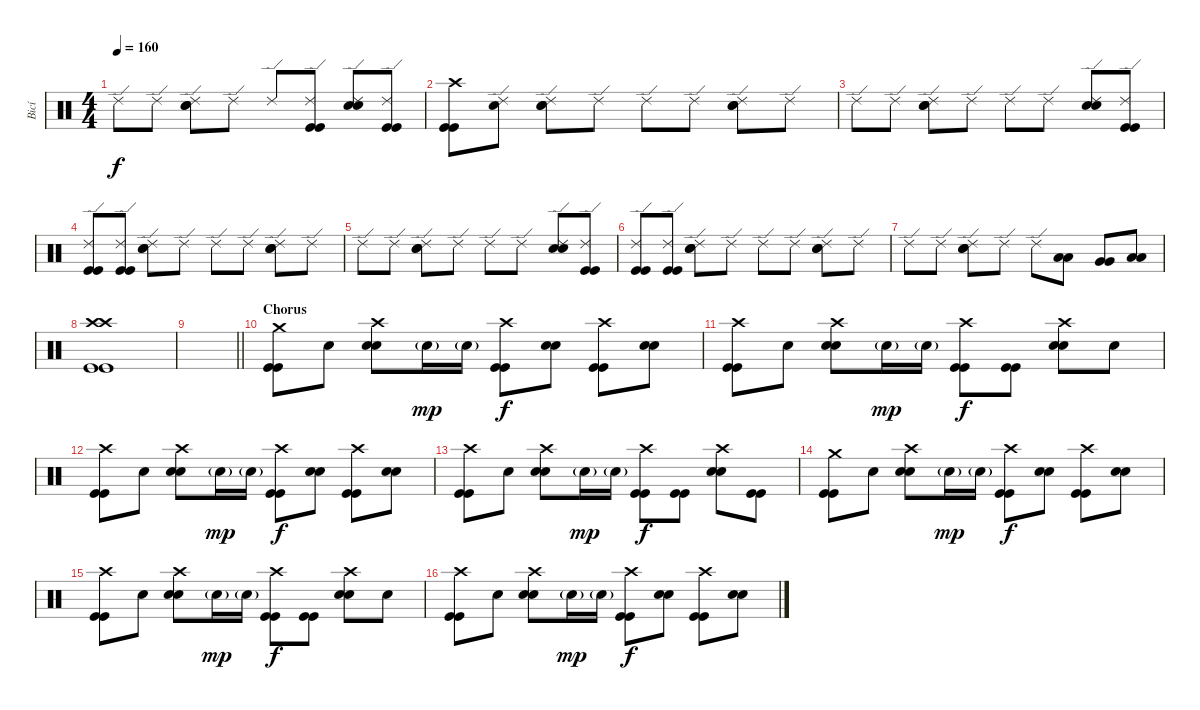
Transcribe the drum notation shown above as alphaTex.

\track ("Bicí" "Bicí") {instrument percussion}
\staff {score}
\articulation defaults
\ts (4 4)
\tempo 160
\clef neutral
\ks c "Ride (edge) 2".8{dy f} "Ride (edge) 2".8
("Ride (edge) 2" "Electric Snare (hit)" "Electric Snare (hit)").8 "Ride (edge) 2".8 "Ride (edge) 2".8 ("Ride (edge) 2" "Kick (hit)" "Kick (hit)").8 ("Ride (edge) 2" "Electric Snare (hit)" "Electric Snare (hit)").8 ("Ride (edge) 2" "Kick (hit)" "Kick (hit)").8 |
("Crash high (hit)" "Kick (hit)" "Kick (hit)").8 ("Ride (edge) 2" "Snare (hit)").8 ("Ride (edge) 2" "Electric Snare (hit)" "Electric Snare (hit)").8 "Ride (edge) 2".8 "Ride (edge) 2".8 "Ride (edge) 2".8 ("Ride (edge) 2" "Electric Snare (hit)" "Electric Snare (hit)").8 "Ride (edge) 2".8 |
"Ride (edge) 2".8 "Ride (edge) 2".8 ("Ride (edge) 2" "Electric Snare (hit)" "Electric Snare (hit)").8 "Ride (edge) 2".8 "Ride (edge) 2".8 "Ride (edge) 2".8 ("Ride (edge) 2" "Electric Snare (hit)" "Electric Snare (hit)").8 ("Ride (edge) 2" "Kick (hit)" "Kick (hit)").8 |
("Ride (edge) 2" "Kick (hit)" "Kick (hit)").8 ("Ride (edge) 2" "Kick (hit)" "Kick (hit)").8 ("Ride (edge) 2" "Electric Snare (hit)" "Electric Snare (hit)").8 "Ride (edge) 2".8 "Ride (edge) 2".8 "Ride (edge) 2".8 ("Ride (edge) 2" "Electric Snare (hit)" "Electric Snare (hit)").8 "Ride (edge) 2".8 |
"Ride (edge) 2".8 "Ride (edge) 2".8 ("Ride (edge) 2" "Electric Snare (hit)" "Electric Snare (hit)").8 "Ride (edge) 2".8 "Ride (edge) 2".8 "Ride (edge) 2".8 ("Ride (edge) 2" "Electric Snare (hit)" "Electric Snare (hit)").8 ("Ride (edge) 2" "Kick (hit)" "Kick (hit)").8 |
("Ride (edge) 2" "Kick (hit)" "Kick (hit)").8 ("Ride (edge) 2" "Kick (hit)" "Kick (hit)").8 ("Ride (edge) 2" "Electric Snare (hit)" "Electric Snare (hit)").8 "Ride (edge) 2".8 "Ride (edge) 2".8 "Ride (edge) 2".8 ("Ride (edge) 2" "Electric Snare (hit)" "Electric Snare (hit)").8 "Ride (edge) 2".8 |
"Ride (edge) 2".8 "Ride (edge) 2".8 ("Ride (edge) 2" "Electric Snare (hit)" "Electric Snare (hit)").8 "Ride (edge) 2".8 "Ride (edge) 2".8 ("Low Tom (hit)" "Low Tom (hit)").8 ("Very Low Tom (hit)" "Very Low Tom (hit)").8 ("Low Floor Tom (hit)" "Low Floor Tom (hit)").8 |
("Crash high (hit)" "Crash high (hit)" "Kick (hit)" "Kick (hit)").1 |
\barLineRight lightlight
|
\section ("" "Chorus")
("Crash medium (hit)" "Kick (hit)" "Kick (hit)").8 "Snare (hit)".8 ("Crash high (hit)" "Electric Snare (hit)" "Electric Snare (hit)").8 "Electric Snare (hit)"{g}.16{dy mp} "Electric Snare (hit)"{g}.16 ("Crash high (hit)" "Kick (hit)" "Kick (hit)").8{dy f} ("Electric Snare (hit)" "Electric Snare (hit)").8 ("Crash high (hit)" "Kick (hit)" "Kick (hit)").8 ("Electric Snare (hit)" "Electric Snare (hit)").8 |
("Crash high (hit)" "Kick (hit)" "Kick (hit)").8 "Snare (hit)".8 ("Crash high (hit)" "Electric Snare (hit)" "Electric Snare (hit)").8 "Electric Snare (hit)"{g}.16{dy mp} "Electric Snare (hit)"{g}.16 ("Crash high (hit)" "Kick (hit)" "Kick (hit)").8{dy f} ("Kick (hit)" "Kick (hit)").8 ("Crash high (hit)" "Electric Snare (hit)" "Electric Snare (hit)").8 "Snare (hit)".8 |
("Crash high (hit)" "Kick (hit)" "Kick (hit)").8 "Snare (hit)".8 ("Crash high (hit)" "Electric Snare (hit)" "Electric Snare (hit)").8 "Electric Snare (hit)"{g}.16{dy mp} "Electric Snare (hit)"{g}.16 ("Crash high (hit)" "Kick (hit)" "Kick (hit)").8{dy f} ("Electric Snare (hit)" "Electric Snare (hit)").8 ("Crash high (hit)" "Kick (hit)" "Kick (hit)").8 ("Electric Snare (hit)" "Electric Snare (hit)").8 |
("Crash high (hit)" "Kick (hit)" "Kick (hit)").8 "Snare (hit)".8 ("Crash high (hit)" "Electric Snare (hit)" "Electric Snare (hit)").8 "Electric Snare (hit)"{g}.16{dy mp} "Electric Snare (hit)"{g}.16 ("Crash high (hit)" "Kick (hit)" "Kick (hit)").8{dy f} ("Kick (hit)" "Kick (hit)").8 ("Crash high (hit)" "Electric Snare (hit)" "Electric Snare (hit)").8 ("Kick (hit)" "Kick (hit)").8 |
("Crash medium (hit)" "Kick (hit)" "Kick (hit)").8 "Snare (hit)".8 ("Crash high (hit)" "Electric Snare (hit)" "Electric Snare (hit)").8 "Electric Snare (hit)"{g}.16{dy mp} "Electric Snare (hit)"{g}.16 ("Crash high (hit)" "Kick (hit)" "Kick (hit)").8{dy f} ("Electric Snare (hit)" "Electric Snare (hit)").8 ("Crash high (hit)" "Kick (hit)" "Kick (hit)").8 ("Electric Snare (hit)" "Electric Snare (hit)").8 |
("Crash high (hit)" "Kick (hit)" "Kick (hit)").8 "Snare (hit)".8 ("Crash high (hit)" "Electric Snare (hit)" "Electric Snare (hit)").8 "Electric Snare (hit)"{g}.16{dy mp} "Electric Snare (hit)"{g}.16 ("Crash high (hit)" "Kick (hit)" "Kick (hit)").8{dy f} ("Kick (hit)" "Kick (hit)").8 ("Crash high (hit)" "Electric Snare (hit)" "Electric Snare (hit)").8 "Snare (hit)".8 |
("Crash high (hit)" "Kick (hit)" "Kick (hit)").8 "Snare (hit)".8 ("Crash high (hit)" "Electric Snare (hit)" "Electric Snare (hit)").8 "Electric Snare (hit)"{g}.16{dy mp} "Electric Snare (hit)"{g}.16 ("Crash high (hit)" "Kick (hit)" "Kick (hit)").8{dy f} ("Electric Snare (hit)" "Electric Snare (hit)").8 ("Crash high (hit)" "Kick (hit)" "Kick (hit)").8 ("Electric Snare (hit)" "Electric Snare (hit)").8
